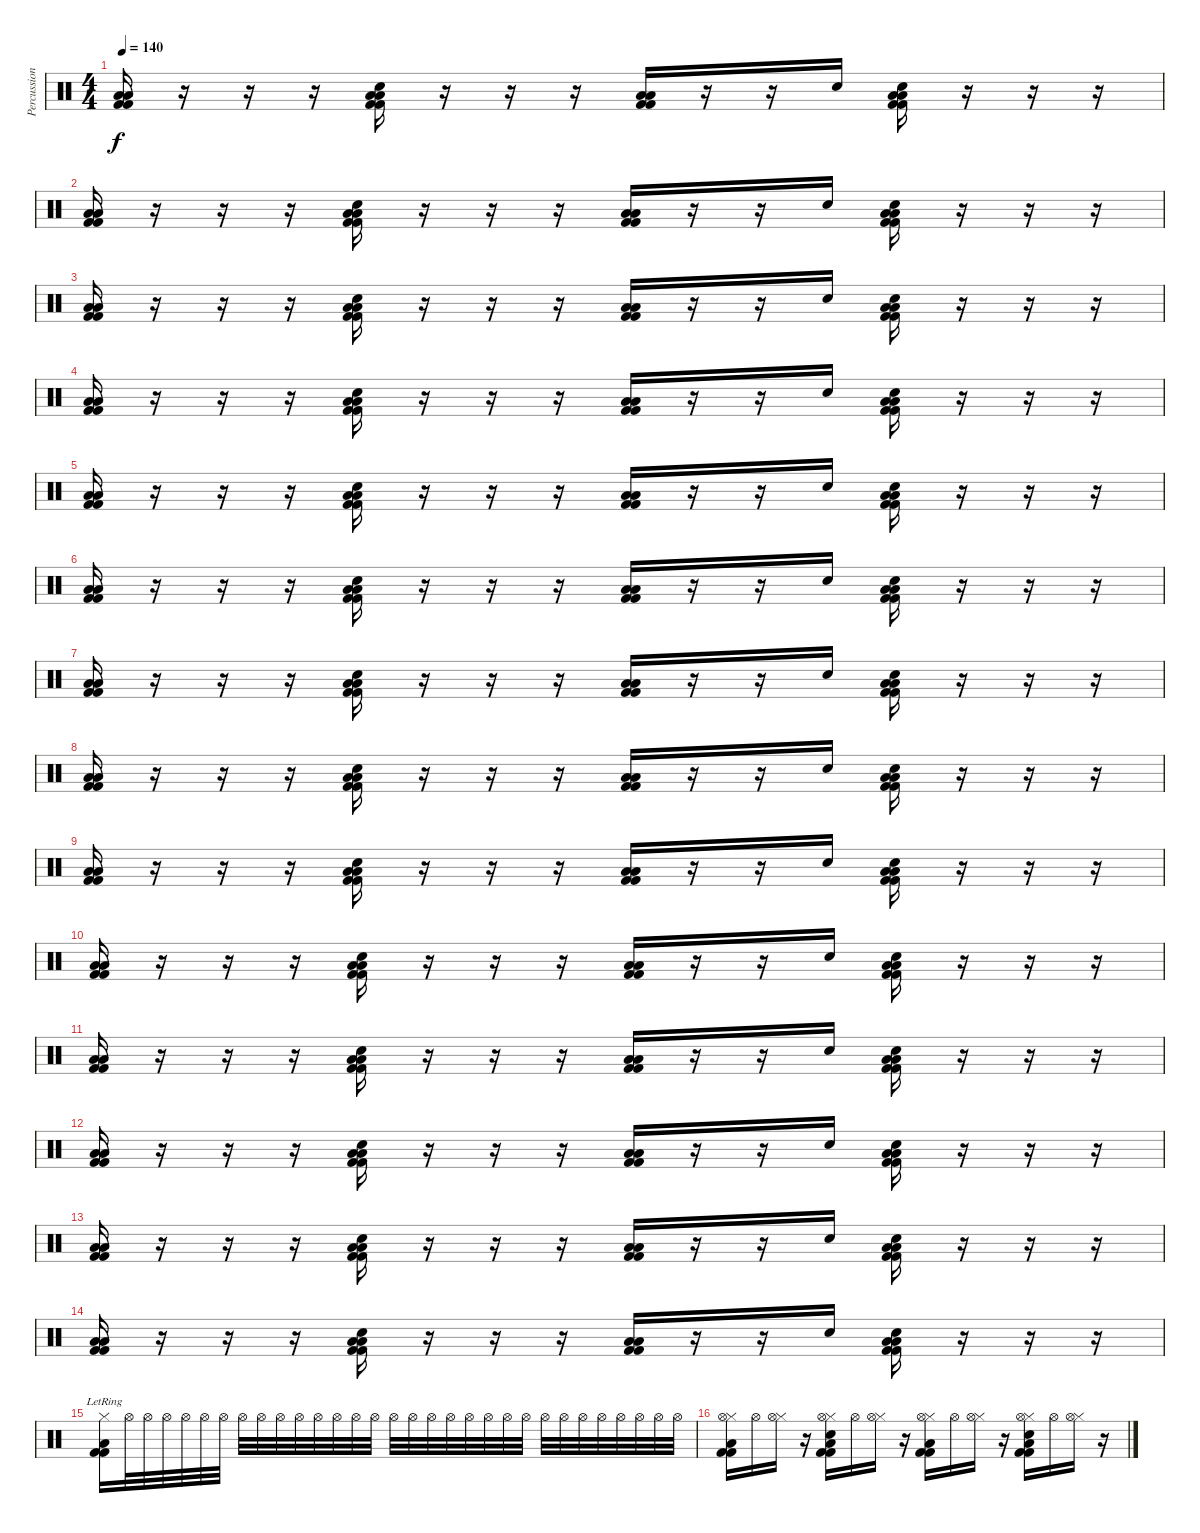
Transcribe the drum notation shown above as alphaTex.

\track ("Percussion" "Percussion") {instrument percussion}
\staff {score}
\articulation defaults
\ts (4 4)
\tempo 140
\clef neutral
\ks c
("Low Tom (hit)" "Low Tom (hit)" "Kick (hit) 2" "Kick (hit) 2").16{dy f} r.16 r.16 r.16 ("Low Tom (hit)" "Low Tom (hit)" "Kick (hit) 2" "Kick (hit) 2" "Hand Clap (hit)").16 r.16 r.16 r.16 ("Low Tom (hit)" "Low Tom (hit)" "Kick (hit) 2" "Kick (hit) 2").16 r.16 r.16 "Hand Clap (hit)".16 ("Low Tom (hit)" "Low Tom (hit)" "Kick (hit) 2" "Kick (hit) 2" "Hand Clap (hit)").16 r.16 r.16 r.16 |
("Low Tom (hit)" "Low Tom (hit)" "Kick (hit) 2" "Kick (hit) 2").16 r.16 r.16 r.16 ("Low Tom (hit)" "Low Tom (hit)" "Kick (hit) 2" "Kick (hit) 2" "Hand Clap (hit)").16 r.16 r.16 r.16 ("Low Tom (hit)" "Low Tom (hit)" "Kick (hit) 2" "Kick (hit) 2").16 r.16 r.16 "Hand Clap (hit)".16 ("Low Tom (hit)" "Low Tom (hit)" "Kick (hit) 2" "Kick (hit) 2" "Hand Clap (hit)").16 r.16 r.16 r.16 |
("Low Tom (hit)" "Low Tom (hit)" "Kick (hit) 2" "Kick (hit) 2").16 r.16 r.16 r.16 ("Low Tom (hit)" "Low Tom (hit)" "Kick (hit) 2" "Kick (hit) 2" "Hand Clap (hit)").16 r.16 r.16 r.16 ("Low Tom (hit)" "Low Tom (hit)" "Kick (hit) 2" "Kick (hit) 2").16 r.16 r.16 "Hand Clap (hit)".16 ("Low Tom (hit)" "Low Tom (hit)" "Kick (hit) 2" "Kick (hit) 2" "Hand Clap (hit)").16 r.16 r.16 r.16 |
("Low Tom (hit)" "Low Tom (hit)" "Kick (hit) 2" "Kick (hit) 2").16 r.16 r.16 r.16 ("Low Tom (hit)" "Low Tom (hit)" "Kick (hit) 2" "Kick (hit) 2" "Hand Clap (hit)").16 r.16 r.16 r.16 ("Low Tom (hit)" "Low Tom (hit)" "Kick (hit) 2" "Kick (hit) 2").16 r.16 r.16 "Hand Clap (hit)".16 ("Low Tom (hit)" "Low Tom (hit)" "Kick (hit) 2" "Kick (hit) 2" "Hand Clap (hit)").16 r.16 r.16 r.16 |
("Low Tom (hit)" "Low Tom (hit)" "Kick (hit) 2" "Kick (hit) 2").16 r.16 r.16 r.16 ("Low Tom (hit)" "Low Tom (hit)" "Kick (hit) 2" "Kick (hit) 2" "Hand Clap (hit)").16 r.16 r.16 r.16 ("Low Tom (hit)" "Low Tom (hit)" "Kick (hit) 2" "Kick (hit) 2").16 r.16 r.16 "Hand Clap (hit)".16 ("Low Tom (hit)" "Low Tom (hit)" "Kick (hit) 2" "Kick (hit) 2" "Hand Clap (hit)").16 r.16 r.16 r.16 |
("Low Tom (hit)" "Low Tom (hit)" "Kick (hit) 2" "Kick (hit) 2").16 r.16 r.16 r.16 ("Low Tom (hit)" "Low Tom (hit)" "Kick (hit) 2" "Kick (hit) 2" "Hand Clap (hit)").16 r.16 r.16 r.16 ("Low Tom (hit)" "Low Tom (hit)" "Kick (hit) 2" "Kick (hit) 2").16 r.16 r.16 "Hand Clap (hit)".16 ("Low Tom (hit)" "Low Tom (hit)" "Kick (hit) 2" "Kick (hit) 2" "Hand Clap (hit)").16 r.16 r.16 r.16 |
("Low Tom (hit)" "Low Tom (hit)" "Kick (hit) 2" "Kick (hit) 2").16 r.16 r.16 r.16 ("Low Tom (hit)" "Low Tom (hit)" "Kick (hit) 2" "Kick (hit) 2" "Hand Clap (hit)").16 r.16 r.16 r.16 ("Low Tom (hit)" "Low Tom (hit)" "Kick (hit) 2" "Kick (hit) 2").16 r.16 r.16 "Hand Clap (hit)".16 ("Low Tom (hit)" "Low Tom (hit)" "Kick (hit) 2" "Kick (hit) 2" "Hand Clap (hit)").16 r.16 r.16 r.16 |
("Low Tom (hit)" "Low Tom (hit)" "Kick (hit) 2" "Kick (hit) 2").16 r.16 r.16 r.16 ("Low Tom (hit)" "Low Tom (hit)" "Kick (hit) 2" "Kick (hit) 2" "Hand Clap (hit)").16 r.16 r.16 r.16 ("Low Tom (hit)" "Low Tom (hit)" "Kick (hit) 2" "Kick (hit) 2").16 r.16 r.16 "Hand Clap (hit)".16 ("Low Tom (hit)" "Low Tom (hit)" "Kick (hit) 2" "Kick (hit) 2" "Hand Clap (hit)").16 r.16 r.16 r.16 |
("Low Tom (hit)" "Low Tom (hit)" "Kick (hit) 2" "Kick (hit) 2").16 r.16 r.16 r.16 ("Low Tom (hit)" "Low Tom (hit)" "Kick (hit) 2" "Kick (hit) 2" "Hand Clap (hit)").16 r.16 r.16 r.16 ("Low Tom (hit)" "Low Tom (hit)" "Kick (hit) 2" "Kick (hit) 2").16 r.16 r.16 "Hand Clap (hit)".16 ("Low Tom (hit)" "Low Tom (hit)" "Kick (hit) 2" "Kick (hit) 2" "Hand Clap (hit)").16 r.16 r.16 r.16 |
("Low Tom (hit)" "Low Tom (hit)" "Kick (hit) 2" "Kick (hit) 2").16 r.16 r.16 r.16 ("Low Tom (hit)" "Low Tom (hit)" "Kick (hit) 2" "Kick (hit) 2" "Hand Clap (hit)").16 r.16 r.16 r.16 ("Low Tom (hit)" "Low Tom (hit)" "Kick (hit) 2" "Kick (hit) 2").16 r.16 r.16 "Hand Clap (hit)".16 ("Low Tom (hit)" "Low Tom (hit)" "Kick (hit) 2" "Kick (hit) 2" "Hand Clap (hit)").16 r.16 r.16 r.16 |
("Low Tom (hit)" "Low Tom (hit)" "Kick (hit) 2" "Kick (hit) 2").16 r.16 r.16 r.16 ("Low Tom (hit)" "Low Tom (hit)" "Kick (hit) 2" "Kick (hit) 2" "Hand Clap (hit)").16 r.16 r.16 r.16 ("Low Tom (hit)" "Low Tom (hit)" "Kick (hit) 2" "Kick (hit) 2").16 r.16 r.16 "Hand Clap (hit)".16 ("Low Tom (hit)" "Low Tom (hit)" "Kick (hit) 2" "Kick (hit) 2" "Hand Clap (hit)").16 r.16 r.16 r.16 |
("Low Tom (hit)" "Low Tom (hit)" "Kick (hit) 2" "Kick (hit) 2").16 r.16 r.16 r.16 ("Low Tom (hit)" "Low Tom (hit)" "Kick (hit) 2" "Kick (hit) 2" "Hand Clap (hit)").16 r.16 r.16 r.16 ("Low Tom (hit)" "Low Tom (hit)" "Kick (hit) 2" "Kick (hit) 2").16 r.16 r.16 "Hand Clap (hit)".16 ("Low Tom (hit)" "Low Tom (hit)" "Kick (hit) 2" "Kick (hit) 2" "Hand Clap (hit)").16 r.16 r.16 r.16 |
("Low Tom (hit)" "Low Tom (hit)" "Kick (hit) 2" "Kick (hit) 2").16 r.16 r.16 r.16 ("Low Tom (hit)" "Low Tom (hit)" "Kick (hit) 2" "Kick (hit) 2" "Hand Clap (hit)").16 r.16 r.16 r.16 ("Low Tom (hit)" "Low Tom (hit)" "Kick (hit) 2" "Kick (hit) 2").16 r.16 r.16 "Hand Clap (hit)".16 ("Low Tom (hit)" "Low Tom (hit)" "Kick (hit) 2" "Kick (hit) 2" "Hand Clap (hit)").16 r.16 r.16 r.16 |
("Low Tom (hit)" "Low Tom (hit)" "Kick (hit) 2" "Kick (hit) 2").16 r.16 r.16 r.16 ("Low Tom (hit)" "Low Tom (hit)" "Kick (hit) 2" "Kick (hit) 2" "Hand Clap (hit)").16 r.16 r.16 r.16 ("Low Tom (hit)" "Low Tom (hit)" "Kick (hit) 2" "Kick (hit) 2").16 r.16 r.16 "Hand Clap (hit)".16 ("Low Tom (hit)" "Low Tom (hit)" "Kick (hit) 2" "Kick (hit) 2" "Hand Clap (hit)").16 r.16 r.16 r.16 |
("Hi-Hat (closed)"{lr} "Low Tom (hit)"{lr} "Kick (hit) 2"{lr} "Kick (hit) 2"{lr}).16 "Hi-Hat (open)".32 "Hi-Hat (open)".32 "Hi-Hat (open)".32 "Hi-Hat (open)".32 "Hi-Hat (open)".32 "Hi-Hat (open)".32 "Hi-Hat (open)".32 "Hi-Hat (open)".32 "Hi-Hat (open)".32 "Hi-Hat (open)".32 "Hi-Hat (open)".32 "Hi-Hat (open)".32 "Hi-Hat (open)".32 "Hi-Hat (open)".32 "Hi-Hat (open)".32 "Hi-Hat (open)".32 "Hi-Hat (open)".32 "Hi-Hat (open)".32 "Hi-Hat (open)".32 "Hi-Hat (open)".32 "Hi-Hat (open)".32 "Hi-Hat (open)".32 "Hi-Hat (open)".32 "Hi-Hat (open)".32 "Hi-Hat (open)".32 "Hi-Hat (open)".32 "Hi-Hat (open)".32 "Hi-Hat (open)".32 "Hi-Hat (open)".32 "Hi-Hat (open)".32 |
("Hi-Hat (closed)" "Low Tom (hit)" "Kick (hit) 2" "Kick (hit) 2" "Hi-Hat (open)").16 "Hi-Hat (open)".16 ("Hi-Hat (closed)" "Hi-Hat (open)").16 r.16 ("Hi-Hat (closed)" "Low Tom (hit)" "Kick (hit) 2" "Kick (hit) 2" "Hand Clap (hit)" "Hi-Hat (open)").16 "Hi-Hat (open)".16 ("Hi-Hat (closed)" "Hi-Hat (open)").16 r.16 ("Hi-Hat (closed)" "Low Tom (hit)" "Kick (hit) 2" "Kick (hit) 2" "Hi-Hat (open)").16 "Hi-Hat (open)".16 ("Hi-Hat (closed)" "Hi-Hat (open)").16 r.16 ("Hi-Hat (closed)" "Low Tom (hit)" "Kick (hit) 2" "Kick (hit) 2" "Hand Clap (hit)" "Hi-Hat (open)").16 "Hi-Hat (open)".16 ("Hi-Hat (closed)" "Hi-Hat (open)").16 r.16
